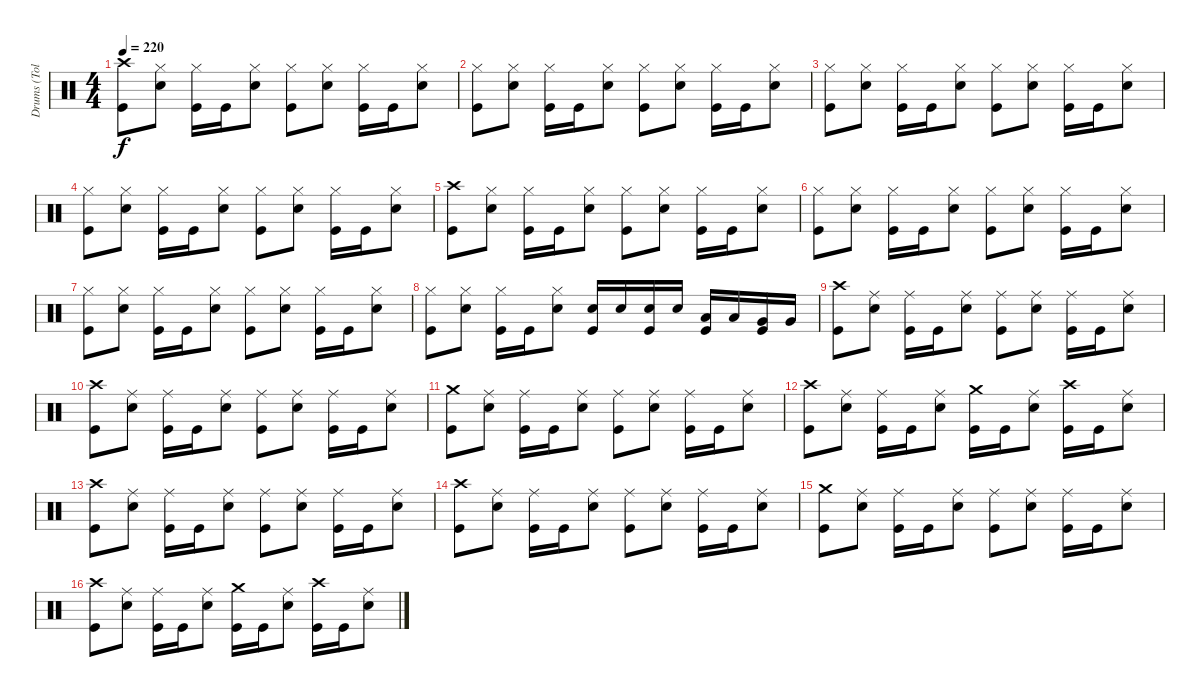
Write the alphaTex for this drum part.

\track ("Drums (Tolik)" "Drums (Tol") {instrument percussion}
\staff {score}
\articulation defaults
\ts (4 4)
\tempo 220
\clef neutral
\ks c
("Crash high (hit)" "Kick (hit)").8{dy f} ("Hi-Hat (closed)" "Electric Snare (hit)").8 ("Hi-Hat (closed)" "Kick (hit)").16 "Kick (hit)".16 ("Hi-Hat (closed)" "Electric Snare (hit)").8 ("Hi-Hat (closed)" "Kick (hit)").8 ("Hi-Hat (closed)" "Electric Snare (hit)").8 ("Hi-Hat (closed)" "Kick (hit)").16 "Kick (hit)".16 ("Hi-Hat (closed)" "Electric Snare (hit)").8 |
("Hi-Hat (closed)" "Kick (hit)").8 ("Hi-Hat (closed)" "Electric Snare (hit)").8 ("Hi-Hat (closed)" "Kick (hit)").16 "Kick (hit)".16 ("Hi-Hat (closed)" "Electric Snare (hit)").8 ("Hi-Hat (closed)" "Kick (hit)").8 ("Hi-Hat (closed)" "Electric Snare (hit)").8 ("Hi-Hat (closed)" "Kick (hit)").16 "Kick (hit)".16 ("Hi-Hat (closed)" "Electric Snare (hit)").8 |
("Hi-Hat (closed)" "Kick (hit)").8 ("Hi-Hat (closed)" "Electric Snare (hit)").8 ("Hi-Hat (closed)" "Kick (hit)").16 "Kick (hit)".16 ("Hi-Hat (closed)" "Electric Snare (hit)").8 ("Hi-Hat (closed)" "Kick (hit)").8 ("Hi-Hat (closed)" "Electric Snare (hit)").8 ("Hi-Hat (closed)" "Kick (hit)").16 "Kick (hit)".16 ("Hi-Hat (closed)" "Electric Snare (hit)").8 |
("Hi-Hat (closed)" "Kick (hit)").8 ("Hi-Hat (closed)" "Electric Snare (hit)").8 ("Hi-Hat (closed)" "Kick (hit)").16 "Kick (hit)".16 ("Hi-Hat (closed)" "Electric Snare (hit)").8 ("Hi-Hat (closed)" "Kick (hit)").8 ("Hi-Hat (closed)" "Electric Snare (hit)").8 ("Hi-Hat (closed)" "Kick (hit)").16 "Kick (hit)".16 ("Hi-Hat (closed)" "Electric Snare (hit)").8 |
("Crash high (hit)" "Kick (hit)").8 ("Hi-Hat (closed)" "Electric Snare (hit)").8 ("Hi-Hat (closed)" "Kick (hit)").16 "Kick (hit)".16 ("Hi-Hat (closed)" "Electric Snare (hit)").8 ("Hi-Hat (closed)" "Kick (hit)").8 ("Hi-Hat (closed)" "Electric Snare (hit)").8 ("Hi-Hat (closed)" "Kick (hit)").16 "Kick (hit)".16 ("Hi-Hat (closed)" "Electric Snare (hit)").8 |
("Hi-Hat (closed)" "Kick (hit)").8 ("Hi-Hat (closed)" "Electric Snare (hit)").8 ("Hi-Hat (closed)" "Kick (hit)").16 "Kick (hit)".16 ("Hi-Hat (closed)" "Electric Snare (hit)").8 ("Hi-Hat (closed)" "Kick (hit)").8 ("Hi-Hat (closed)" "Electric Snare (hit)").8 ("Hi-Hat (closed)" "Kick (hit)").16 "Kick (hit)".16 ("Hi-Hat (closed)" "Electric Snare (hit)").8 |
("Hi-Hat (closed)" "Kick (hit)").8 ("Hi-Hat (closed)" "Electric Snare (hit)").8 ("Hi-Hat (closed)" "Kick (hit)").16 "Kick (hit)".16 ("Hi-Hat (closed)" "Electric Snare (hit)").8 ("Hi-Hat (closed)" "Kick (hit)").8 ("Hi-Hat (closed)" "Electric Snare (hit)").8 ("Hi-Hat (closed)" "Kick (hit)").16 "Kick (hit)".16 ("Hi-Hat (closed)" "Electric Snare (hit)").8 |
("Hi-Hat (closed)" "Kick (hit)").8 ("Hi-Hat (closed)" "Electric Snare (hit)").8 ("Hi-Hat (closed)" "Kick (hit)").16 "Kick (hit)".16 ("Hi-Hat (closed)" "Electric Snare (hit)").8 ("Kick (hit)" "Electric Snare (hit)").16 "Electric Snare (hit)".16 ("Kick (hit)" "Electric Snare (hit)").16 "Electric Snare (hit)".16 ("Kick (hit)" "Low Tom (hit)").16 "Low Tom (hit)".16 ("Kick (hit)" "Very Low Tom (hit)").16 "Very Low Tom (hit)".16 |
("Crash high (hit)" "Kick (hit)").8 ("Ride (middle)" "Electric Snare (hit)").8 ("Ride (middle)" "Kick (hit)").16 "Kick (hit)".16 ("Ride (middle)" "Electric Snare (hit)").8 ("Ride (middle)" "Kick (hit)").8 ("Ride (middle)" "Electric Snare (hit)").8 ("Ride (middle)" "Kick (hit)").16 "Kick (hit)".16 ("Ride (middle)" "Electric Snare (hit)").8 |
("Crash high (hit)" "Kick (hit)").8 ("Ride (middle)" "Electric Snare (hit)").8 ("Ride (middle)" "Kick (hit)").16 "Kick (hit)".16 ("Ride (middle)" "Electric Snare (hit)").8 ("Ride (middle)" "Kick (hit)").8 ("Ride (middle)" "Electric Snare (hit)").8 ("Ride (middle)" "Kick (hit)").16 "Kick (hit)".16 ("Ride (middle)" "Electric Snare (hit)").8 |
("Crash medium (hit)" "Kick (hit)").8 ("Ride (middle)" "Electric Snare (hit)").8 ("Ride (middle)" "Kick (hit)").16 "Kick (hit)".16 ("Ride (middle)" "Electric Snare (hit)").8 ("Ride (middle)" "Kick (hit)").8 ("Ride (middle)" "Electric Snare (hit)").8 ("Ride (middle)" "Kick (hit)").16 "Kick (hit)".16 ("Ride (middle)" "Electric Snare (hit)").8 |
("Crash high (hit)" "Kick (hit)").8 ("Ride (middle)" "Electric Snare (hit)").8 ("Ride (middle)" "Kick (hit)").16 "Kick (hit)".16 ("Ride (middle)" "Electric Snare (hit)").8 ("Crash medium (hit)" "Kick (hit)").16 "Kick (hit)".16 ("Ride (middle)" "Electric Snare (hit)").8 ("Crash high (hit)" "Kick (hit)").16 "Kick (hit)".16 ("Ride (middle)" "Electric Snare (hit)").8 |
("Crash high (hit)" "Kick (hit)").8 ("Ride (middle)" "Electric Snare (hit)").8 ("Ride (middle)" "Kick (hit)").16 "Kick (hit)".16 ("Ride (middle)" "Electric Snare (hit)").8 ("Ride (middle)" "Kick (hit)").8 ("Ride (middle)" "Electric Snare (hit)").8 ("Ride (middle)" "Kick (hit)").16 "Kick (hit)".16 ("Ride (middle)" "Electric Snare (hit)").8 |
("Crash high (hit)" "Kick (hit)").8 ("Ride (middle)" "Electric Snare (hit)").8 ("Ride (middle)" "Kick (hit)").16 "Kick (hit)".16 ("Ride (middle)" "Electric Snare (hit)").8 ("Ride (middle)" "Kick (hit)").8 ("Ride (middle)" "Electric Snare (hit)").8 ("Ride (middle)" "Kick (hit)").16 "Kick (hit)".16 ("Ride (middle)" "Electric Snare (hit)").8 |
("Crash medium (hit)" "Kick (hit)").8 ("Ride (middle)" "Electric Snare (hit)").8 ("Ride (middle)" "Kick (hit)").16 "Kick (hit)".16 ("Ride (middle)" "Electric Snare (hit)").8 ("Ride (middle)" "Kick (hit)").8 ("Ride (middle)" "Electric Snare (hit)").8 ("Ride (middle)" "Kick (hit)").16 "Kick (hit)".16 ("Ride (middle)" "Electric Snare (hit)").8 |
("Crash high (hit)" "Kick (hit)").8 ("Ride (middle)" "Electric Snare (hit)").8 ("Ride (middle)" "Kick (hit)").16 "Kick (hit)".16 ("Ride (middle)" "Electric Snare (hit)").8 ("Crash medium (hit)" "Kick (hit)").16 "Kick (hit)".16 ("Ride (middle)" "Electric Snare (hit)").8 ("Crash high (hit)" "Kick (hit)").16 "Kick (hit)".16 ("Ride (middle)" "Electric Snare (hit)").8
